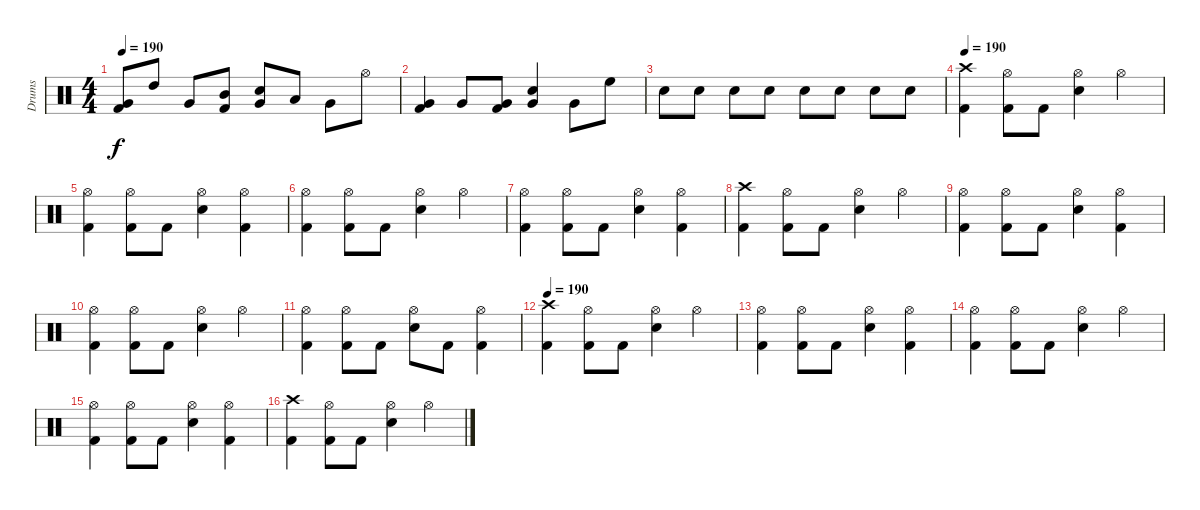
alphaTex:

\track ("Drums" "Drums") {instrument percussion}
\staff {score}
\articulation defaults
\ts (4 4)
\tempo 190
\clef neutral
\ks c
("Very Low Tom (hit)" "Kick (hit) 2").8{dy f} "High Tom (hit)".8 "Very Low Tom (hit)".8 ("Mid Tom (hit)" "Kick (hit) 2").8 ("Very Low Tom (hit)" "Electric Snare (hit)").8 "Low Tom (hit)".8 "Very Low Tom (hit)".8 "Hi-Hat (open)".8 |
("Very Low Tom (hit)" "Kick (hit) 2").4 "Very Low Tom (hit)".8 ("Very Low Tom (hit)" "Kick (hit) 2").8 ("Very Low Tom (hit)" "Electric Snare (hit)").4 "Very Low Tom (hit)".8 "High Floor Tom (hit)".8 |
"Electric Snare (hit)".8 "Electric Snare (hit)".8 "Electric Snare (hit)".8 "Electric Snare (hit)".8 "Electric Snare (hit)".8 "Electric Snare (hit)".8 "Electric Snare (hit)".8 "Electric Snare (hit)".8 |
\tempo 190
("Crash high (hit)" "Kick (hit) 2").4 ("Hi-Hat (open)" "Kick (hit) 2").8 "Kick (hit) 2".8 ("Hi-Hat (open)" "Electric Snare (hit)").4 "Hi-Hat (open)".4 |
("Hi-Hat (open)" "Kick (hit) 2").4 ("Hi-Hat (open)" "Kick (hit) 2").8 "Kick (hit) 2".8 ("Hi-Hat (open)" "Electric Snare (hit)").4 ("Hi-Hat (open)" "Kick (hit) 2").4 |
("Hi-Hat (open)" "Kick (hit) 2").4 ("Hi-Hat (open)" "Kick (hit) 2").8 "Kick (hit) 2".8 ("Hi-Hat (open)" "Electric Snare (hit)").4 "Hi-Hat (open)".4 |
("Hi-Hat (open)" "Kick (hit) 2").4 ("Hi-Hat (open)" "Kick (hit) 2").8 "Kick (hit) 2".8 ("Hi-Hat (open)" "Electric Snare (hit)").4 ("Hi-Hat (open)" "Kick (hit) 2").4 |
("Crash high (hit)" "Kick (hit) 2").4 ("Hi-Hat (open)" "Kick (hit) 2").8 "Kick (hit) 2".8 ("Hi-Hat (open)" "Electric Snare (hit)").4 "Hi-Hat (open)".4 |
("Hi-Hat (open)" "Kick (hit) 2").4 ("Hi-Hat (open)" "Kick (hit) 2").8 "Kick (hit) 2".8 ("Hi-Hat (open)" "Electric Snare (hit)").4 ("Hi-Hat (open)" "Kick (hit) 2").4 |
("Hi-Hat (open)" "Kick (hit) 2").4 ("Hi-Hat (open)" "Kick (hit) 2").8 "Kick (hit) 2".8 ("Hi-Hat (open)" "Electric Snare (hit)").4 "Hi-Hat (open)".4 |
("Hi-Hat (open)" "Kick (hit) 2").4 ("Hi-Hat (open)" "Kick (hit) 2").8 "Kick (hit) 2".8 ("Hi-Hat (open)" "Electric Snare (hit)").8 "Kick (hit) 2".8 ("Hi-Hat (open)" "Kick (hit) 2").4 |
\tempo 190
("Crash high (hit)" "Kick (hit) 2").4 ("Hi-Hat (open)" "Kick (hit) 2").8 "Kick (hit) 2".8 ("Hi-Hat (open)" "Electric Snare (hit)").4 "Hi-Hat (open)".4 |
("Hi-Hat (open)" "Kick (hit) 2").4 ("Hi-Hat (open)" "Kick (hit) 2").8 "Kick (hit) 2".8 ("Hi-Hat (open)" "Electric Snare (hit)").4 ("Hi-Hat (open)" "Kick (hit) 2").4 |
("Hi-Hat (open)" "Kick (hit) 2").4 ("Hi-Hat (open)" "Kick (hit) 2").8 "Kick (hit) 2".8 ("Hi-Hat (open)" "Electric Snare (hit)").4 "Hi-Hat (open)".4 |
("Hi-Hat (open)" "Kick (hit) 2").4 ("Hi-Hat (open)" "Kick (hit) 2").8 "Kick (hit) 2".8 ("Hi-Hat (open)" "Electric Snare (hit)").4 ("Hi-Hat (open)" "Kick (hit) 2").4 |
("Crash high (hit)" "Kick (hit) 2").4 ("Hi-Hat (open)" "Kick (hit) 2").8 "Kick (hit) 2".8 ("Hi-Hat (open)" "Electric Snare (hit)").4 "Hi-Hat (open)".4
